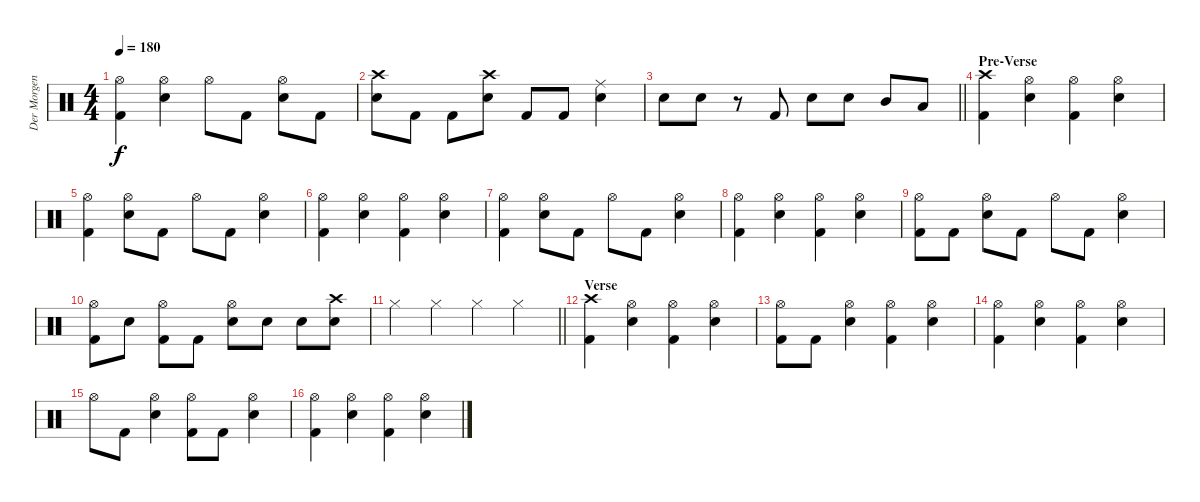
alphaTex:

\track ("Der Morgenstern" "Der Morgen") {instrument percussion}
\staff {score}
\articulation defaults
\ts (4 4)
\tempo 180
\clef neutral
\ks c
("Hi-Hat (open)" "Kick (hit) 2").4{dy f} ("Hi-Hat (open)" "Electric Snare (hit)").4 "Hi-Hat (open)".8 "Kick (hit) 2".8 ("Hi-Hat (open)" "Electric Snare (hit)").8 "Kick (hit) 2".8 |
("Crash high (hit)" "Electric Snare (hit)").8 "Kick (hit) 2".8 "Kick (hit) 2".8 ("Crash high (hit)" "Electric Snare (hit)").8 "Kick (hit) 2".8 "Kick (hit) 2".8 ("Ride (middle)" "Electric Snare (hit)").4 |
\barLineRight lightlight "Electric Snare (hit)".8 "Electric Snare (hit)".8
r.8 "Kick (hit) 2".8 "Electric Snare (hit)".8 "Electric Snare (hit)".8 "Mid Tom (hit)".8 "Low Tom (hit)".8 |
\section ("" "Pre-Verse")
("Crash high (hit)" "Kick (hit) 2").4 ("Hi-Hat (open)" "Electric Snare (hit)").4 ("Hi-Hat (open)" "Kick (hit) 2").4 ("Hi-Hat (open)" "Electric Snare (hit)").4 |
("Hi-Hat (open)" "Kick (hit) 2").4 ("Hi-Hat (open)" "Electric Snare (hit)").8 "Kick (hit) 2".8 "Hi-Hat (open)".8 "Kick (hit) 2".8 ("Hi-Hat (open)" "Electric Snare (hit)").4 |
("Hi-Hat (open)" "Kick (hit) 2").4 ("Hi-Hat (open)" "Electric Snare (hit)").4 ("Hi-Hat (open)" "Kick (hit) 2").4 ("Hi-Hat (open)" "Electric Snare (hit)").4 |
("Hi-Hat (open)" "Kick (hit) 2").4 ("Hi-Hat (open)" "Electric Snare (hit)").8 "Kick (hit) 2".8 "Hi-Hat (open)".8 "Kick (hit) 2".8 ("Hi-Hat (open)" "Electric Snare (hit)").4 |
("Hi-Hat (open)" "Kick (hit) 2").4 ("Hi-Hat (open)" "Electric Snare (hit)").4 ("Hi-Hat (open)" "Kick (hit) 2").4 ("Hi-Hat (open)" "Electric Snare (hit)").4 |
("Hi-Hat (open)" "Kick (hit) 2").8 "Kick (hit) 2".8 ("Hi-Hat (open)" "Electric Snare (hit)").8 "Kick (hit) 2".8 "Hi-Hat (open)".8 "Kick (hit) 2".8 ("Hi-Hat (open)" "Electric Snare (hit)").4 |
("Hi-Hat (open)" "Kick (hit) 2").8 "Electric Snare (hit)".8 ("Hi-Hat (open)" "Kick (hit) 2").8 "Kick (hit) 2".8 ("Hi-Hat (open)" "Electric Snare (hit)").8 "Electric Snare (hit)".8 "Electric Snare (hit)".8 ("Crash high (hit)" "Electric Snare (hit)").8 |
\barLineRight lightlight "Hi-Hat (closed)".4 "Hi-Hat (closed)".4 "Hi-Hat (closed)".4 "Hi-Hat (closed)".4
|
\section ("" "Verse")
("Crash high (hit)" "Kick (hit) 2").4 ("Hi-Hat (open)" "Electric Snare (hit)").4 ("Hi-Hat (open)" "Kick (hit) 2").4 ("Hi-Hat (open)" "Electric Snare (hit)").4 |
("Hi-Hat (open)" "Kick (hit) 2").8 "Kick (hit) 2".8 ("Hi-Hat (open)" "Electric Snare (hit)").4 ("Hi-Hat (open)" "Kick (hit) 2").4 ("Hi-Hat (open)" "Electric Snare (hit)").4 |
("Hi-Hat (open)" "Kick (hit) 2").4 ("Hi-Hat (open)" "Electric Snare (hit)").4 ("Hi-Hat (open)" "Kick (hit) 2").4 ("Hi-Hat (open)" "Electric Snare (hit)").4 |
"Hi-Hat (open)".8 "Kick (hit) 2".8 ("Hi-Hat (open)" "Electric Snare (hit)").4 ("Hi-Hat (open)" "Kick (hit) 2").8 "Kick (hit) 2".8 ("Hi-Hat (open)" "Electric Snare (hit)").4 |
("Hi-Hat (open)" "Kick (hit) 2").4 ("Hi-Hat (open)" "Electric Snare (hit)").4 ("Hi-Hat (open)" "Kick (hit) 2").4 ("Hi-Hat (open)" "Electric Snare (hit)").4
